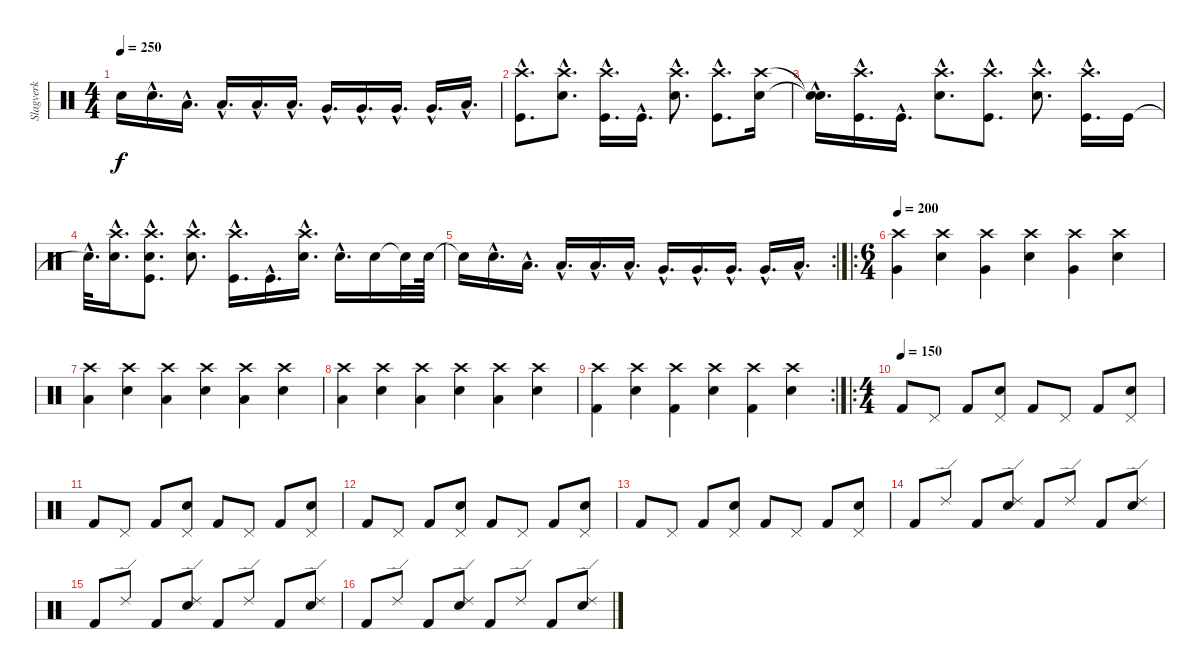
\track ("Slagverk" "Slagverk") {instrument percussion}
\staff {score}
\articulation defaults
\ts (4 4)
\tempo 250
\clef neutral
\ks c "Snare (hit)"{t}.16{dy f} "Electric Snare (hit)"{hac}.16{d} "Low Tom (hit)"{hac}.16{d} "Low Tom (hit)"{hac}.16{d} "Low Tom (hit)"{hac}.16{d} "Low Tom (hit)"{hac}.16{d} "Very Low Tom (hit)"{hac}.16{d} "Very Low Tom (hit)"{hac}.16{d} "Very Low Tom (hit)"{hac}.16{d} "Very Low Tom (hit)"{hac}.16{d} "Low Floor Tom (hit)"{hac}.16{d}
|
("Crash high (hit)"{hac} "Kick (hit)"{hac}).8{d} ("Crash high (hit)"{hac} "Snare (hit) 2"{hac}).8{d} ("Crash high (hit)"{hac} "Kick (hit)"{hac}).16{d} "Kick (hit)"{hac}.16{d} ("Crash high (hit)"{hac} "Snare (hit) 2"{hac}).8{d} ("Crash high (hit)"{hac} "Kick (hit)"{hac}).8{d} ("Crash high (hit)" "Snare (hit) 2").16 |
("Snare (hit)"{hac t} "Snare (hit)"{hac t}).16{d} ("Crash high (hit)"{hac} "Kick (hit)"{hac}).16{d} "Kick (hit)"{hac}.16{d} ("Crash high (hit)"{hac} "Snare (hit) 2"{hac}).8{d} ("Crash high (hit)"{hac} "Kick (hit)"{hac}).8{d} ("Crash high (hit)"{hac} "Snare (hit) 2"{hac}).8{d} ("Crash high (hit)"{hac} "Kick (hit)"{hac}).16{d} "Kick (hit)".16 |
"Snare (hit)"{hac t}.32{d} ("Crash high (hit)"{hac} "Snare (hit) 2"{hac}).16{d} ("Crash high (hit)"{hac} "Kick (hit)"{hac} "Snare (hit)"{hac}).8{d} ("Crash high (hit)"{hac} "Snare (hit) 2"{hac}).8{d} ("Crash high (hit)"{hac} "Kick (hit)"{hac}).16{d} "Kick (hit)"{hac}.16{d} ("Crash high (hit)"{hac} "Snare (hit) 2"{hac}).16{d} "Electric Snare (hit)"{hac}.16{d} "Electric Snare (hit)".16 "Snare (hit)"{t}.32 "Electric Snare (hit)".64 |
\rc 2 "Snare (hit)"{t}.16 "Electric Snare (hit)"{hac}.16{d} "Low Tom (hit)"{hac}.16{d} "Low Tom (hit)"{hac}.16{d} "Low Tom (hit)"{hac}.16{d} "Low Tom (hit)"{hac}.16{d} "Very Low Tom (hit)"{hac}.16{d} "Very Low Tom (hit)"{hac}.16{d} "Very Low Tom (hit)"{hac}.16{d} "Very Low Tom (hit)"{hac}.16{d} "Low Floor Tom (hit)"{hac}.16{d}
|
\ro
\ts (6 4)
\tempo 200
("Crash high (hit)" "Very Low Tom (hit)").4 ("Crash high (hit)" "Electric Snare (hit)").4 ("Crash high (hit)" "Very Low Tom (hit)").4 ("Crash high (hit)" "Electric Snare (hit)").4 ("Crash high (hit)" "Very Low Tom (hit)").4 ("Crash high (hit)" "Electric Snare (hit)").4 |
("Crash high (hit)" "Low Tom (hit)").4 ("Crash high (hit)" "Electric Snare (hit)").4 ("Crash high (hit)" "Low Tom (hit)").4 ("Crash high (hit)" "Electric Snare (hit)").4 ("Crash high (hit)" "Low Tom (hit)").4 ("Crash high (hit)" "Electric Snare (hit)").4 |
("Crash high (hit)" "Low Floor Tom (hit)").4 ("Crash high (hit)" "Electric Snare (hit)").4 ("Crash high (hit)" "Low Floor Tom (hit)").4 ("Crash high (hit)" "Electric Snare (hit)").4 ("Crash high (hit)" "Low Floor Tom (hit)").4 ("Crash high (hit)" "Electric Snare (hit)").4 |
\rc 2
("Crash high (hit)" "Kick (hit) 2").4 ("Crash high (hit)" "Electric Snare (hit)").4 ("Crash high (hit)" "Kick (hit) 2").4 ("Crash high (hit)" "Electric Snare (hit)").4 ("Crash high (hit)" "Kick (hit) 2").4 ("Crash high (hit)" "Electric Snare (hit)").4 |
\ro
\ts (4 4)
\tempo (150)
"Kick (hit) 2".8 "Pedal Hi-Hat (hit)".8 "Kick (hit) 2".8 ("Pedal Hi-Hat (hit)" "Electric Snare (hit)").8 "Kick (hit) 2".8 "Pedal Hi-Hat (hit)".8 "Kick (hit) 2".8 ("Pedal Hi-Hat (hit)" "Electric Snare (hit)").8 |
"Kick (hit) 2".8 "Pedal Hi-Hat (hit)".8 "Kick (hit) 2".8 ("Pedal Hi-Hat (hit)" "Electric Snare (hit)").8 "Kick (hit) 2".8 "Pedal Hi-Hat (hit)".8 "Kick (hit) 2".8 ("Pedal Hi-Hat (hit)" "Electric Snare (hit)").8 |
"Kick (hit) 2".8 "Pedal Hi-Hat (hit)".8 "Kick (hit) 2".8 ("Pedal Hi-Hat (hit)" "Electric Snare (hit)").8 "Kick (hit) 2".8 "Pedal Hi-Hat (hit)".8 "Kick (hit) 2".8 ("Pedal Hi-Hat (hit)" "Electric Snare (hit)").8 |
"Kick (hit) 2".8 "Pedal Hi-Hat (hit)".8 "Kick (hit) 2".8 ("Pedal Hi-Hat (hit)" "Electric Snare (hit)").8 "Kick (hit) 2".8 "Pedal Hi-Hat (hit)".8 "Kick (hit) 2".8 ("Pedal Hi-Hat (hit)" "Electric Snare (hit)").8 |
"Kick (hit) 2".8 "Ride (edge) 2".8 "Kick (hit) 2".8 ("Ride (edge) 2" "Electric Snare (hit)").8 "Kick (hit) 2".8 "Ride (edge) 2".8 "Kick (hit) 2".8 ("Ride (edge) 2" "Electric Snare (hit)").8 |
"Kick (hit) 2".8 "Ride (edge) 2".8 "Kick (hit) 2".8 ("Ride (edge) 2" "Electric Snare (hit)").8 "Kick (hit) 2".8 "Ride (edge) 2".8 "Kick (hit) 2".8 ("Ride (edge) 2" "Electric Snare (hit)").8 |
"Kick (hit) 2".8 "Ride (edge) 2".8 "Kick (hit) 2".8 ("Ride (edge) 2" "Electric Snare (hit)").8 "Kick (hit) 2".8 "Ride (edge) 2".8 "Kick (hit) 2".8 ("Ride (edge) 2" "Electric Snare (hit)").8
